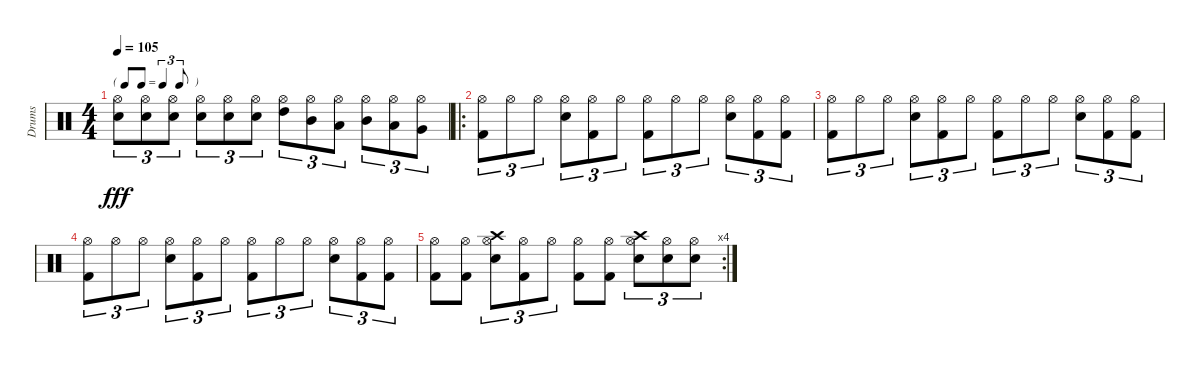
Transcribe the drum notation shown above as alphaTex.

\track ("Drums" "Drums") {instrument percussion}
\staff {score}
\articulation defaults
\ts (4 4)
\tf triplet8th
\tempo 105
\clef neutral
\ks c
("Hi-Hat (open)" "Snare (hit) 2").8{tu (3 2) dy fff} ("Hi-Hat (open)" "Snare (hit) 2").8{tu (3 2)} ("Hi-Hat (open)" "Snare (hit) 2").8{tu (3 2)} ("Hi-Hat (open)" "Snare (hit) 2").8{tu (3 2)} ("Hi-Hat (open)" "Snare (hit) 2").8{tu (3 2)} ("Hi-Hat (open)" "Snare (hit) 2").8{tu (3 2)} ("Hi-Hat (open)" "High Tom (hit)").8{tu (3 2)} ("Hi-Hat (open)" "Mid Tom (hit)").8{tu (3 2)} ("Hi-Hat (open)" "Low Tom (hit)").8{tu (3 2)} ("Hi-Hat (open)" "Mid Tom (hit)").8{tu (3 2)} ("Hi-Hat (open)" "Low Tom (hit)").8{tu (3 2)} ("Hi-Hat (open)" "Very Low Tom (hit)").8{tu (3 2)} |
\ro
("Hi-Hat (open)" "Kick (hit) 2").8{tu (3 2)} "Hi-Hat (open)".8{tu (3 2)} "Hi-Hat (open)".8{tu (3 2)} ("Hi-Hat (open)" "Snare (hit) 2").8{tu (3 2)} ("Hi-Hat (open)" "Kick (hit) 2").8{tu (3 2)} "Hi-Hat (open)".8{tu (3 2)} ("Hi-Hat (open)" "Kick (hit) 2").8{tu (3 2)} "Hi-Hat (open)".8{tu (3 2)} "Hi-Hat (open)".8{tu (3 2)} ("Hi-Hat (open)" "Snare (hit) 2").8{tu (3 2)} ("Hi-Hat (open)" "Kick (hit) 2").8{tu (3 2)} ("Hi-Hat (open)" "Kick (hit) 2").8{tu (3 2)} |
("Hi-Hat (open)" "Kick (hit) 2").8{tu (3 2)} "Hi-Hat (open)".8{tu (3 2)} "Hi-Hat (open)".8{tu (3 2)} ("Hi-Hat (open)" "Snare (hit) 2").8{tu (3 2)} ("Hi-Hat (open)" "Kick (hit) 2").8{tu (3 2)} "Hi-Hat (open)".8{tu (3 2)} ("Hi-Hat (open)" "Kick (hit) 2").8{tu (3 2)} "Hi-Hat (open)".8{tu (3 2)} "Hi-Hat (open)".8{tu (3 2)} ("Hi-Hat (open)" "Snare (hit) 2").8{tu (3 2)} ("Hi-Hat (open)" "Kick (hit) 2").8{tu (3 2)} ("Hi-Hat (open)" "Kick (hit) 2").8{tu (3 2)} |
("Hi-Hat (open)" "Kick (hit) 2").8{tu (3 2)} "Hi-Hat (open)".8{tu (3 2)} "Hi-Hat (open)".8{tu (3 2)} ("Hi-Hat (open)" "Snare (hit) 2").8{tu (3 2)} ("Hi-Hat (open)" "Kick (hit) 2").8{tu (3 2)} "Hi-Hat (open)".8{tu (3 2)} ("Hi-Hat (open)" "Kick (hit) 2").8{tu (3 2)} "Hi-Hat (open)".8{tu (3 2)} "Hi-Hat (open)".8{tu (3 2)} ("Hi-Hat (open)" "Snare (hit) 2").8{tu (3 2)} ("Hi-Hat (open)" "Kick (hit) 2").8{tu (3 2)} ("Hi-Hat (open)" "Kick (hit) 2").8{tu (3 2)} |
\rc 4
("Hi-Hat (open)" "Kick (hit) 2").8 ("Hi-Hat (open)" "Kick (hit) 2").8 ("Hi-Hat (open)" "Snare (hit) 2" "Crash high (hit)").8{tu (3 2)} ("Hi-Hat (open)" "Kick (hit) 2").8{tu (3 2)} "Hi-Hat (open)".8{tu (3 2)} ("Hi-Hat (open)" "Kick (hit) 2").8 ("Hi-Hat (open)" "Kick (hit) 2").8 ("Hi-Hat (open)" "Snare (hit) 2" "Crash high (hit)").8{tu (3 2)} ("Hi-Hat (open)" "Snare (hit) 2").8{tu (3 2)} ("Hi-Hat (open)" "Snare (hit) 2").8{tu (3 2)}
